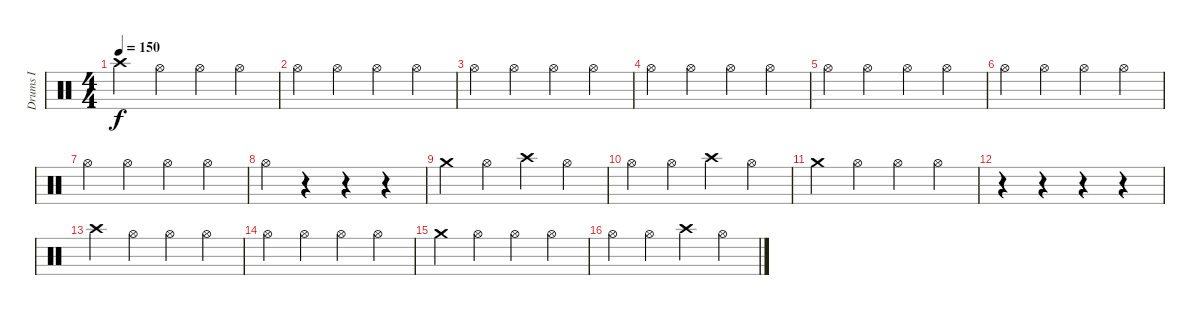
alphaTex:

\track ("Drums I" "Drums I") {instrument percussion}
\staff {score}
\articulation defaults
\ts (4 4)
\tempo 150
\clef neutral
\ks c "Crash high (hit)".4{dy f} "Hi-Hat (open)".4 "Hi-Hat (open)".4 "Hi-Hat (open)".4
|
"Hi-Hat (open)".4 "Hi-Hat (open)".4 "Hi-Hat (open)".4 "Hi-Hat (open)".4 |
"Hi-Hat (open)".4 "Hi-Hat (open)".4 "Hi-Hat (open)".4 "Hi-Hat (open)".4 |
"Hi-Hat (open)".4 "Hi-Hat (open)".4 "Hi-Hat (open)".4 "Hi-Hat (open)".4 |
"Hi-Hat (open)".4 "Hi-Hat (open)".4 "Hi-Hat (open)".4 "Hi-Hat (open)".4 |
"Hi-Hat (open)".4 "Hi-Hat (open)".4 "Hi-Hat (open)".4 "Hi-Hat (open)".4 |
"Hi-Hat (open)".4 "Hi-Hat (open)".4 "Hi-Hat (open)".4 "Hi-Hat (open)".4 |
"Hi-Hat (open)".4 r.4 r.4 r.4 |
"Crash medium (hit)".4 "Hi-Hat (open)".4 "Crash high (hit)".4 "Hi-Hat (open)".4 |
"Hi-Hat (open)".4 "Hi-Hat (open)".4 "Crash high (hit)".4 "Hi-Hat (open)".4 |
"Crash medium (hit)".4 "Hi-Hat (open)".4 "Hi-Hat (open)".4 "Hi-Hat (open)".4 |
r.4 r.4 r.4 r.4 |
"Crash high (hit)".4 "Hi-Hat (open)".4 "Hi-Hat (open)".4 "Hi-Hat (open)".4 |
"Hi-Hat (open)".4 "Hi-Hat (open)".4 "Hi-Hat (open)".4 "Hi-Hat (open)".4 |
"Crash medium (hit)".4 "Hi-Hat (open)".4 "Hi-Hat (open)".4 "Hi-Hat (open)".4 |
"Hi-Hat (open)".4 "Hi-Hat (open)".4 "Crash high (hit)".4 "Hi-Hat (open)".4
